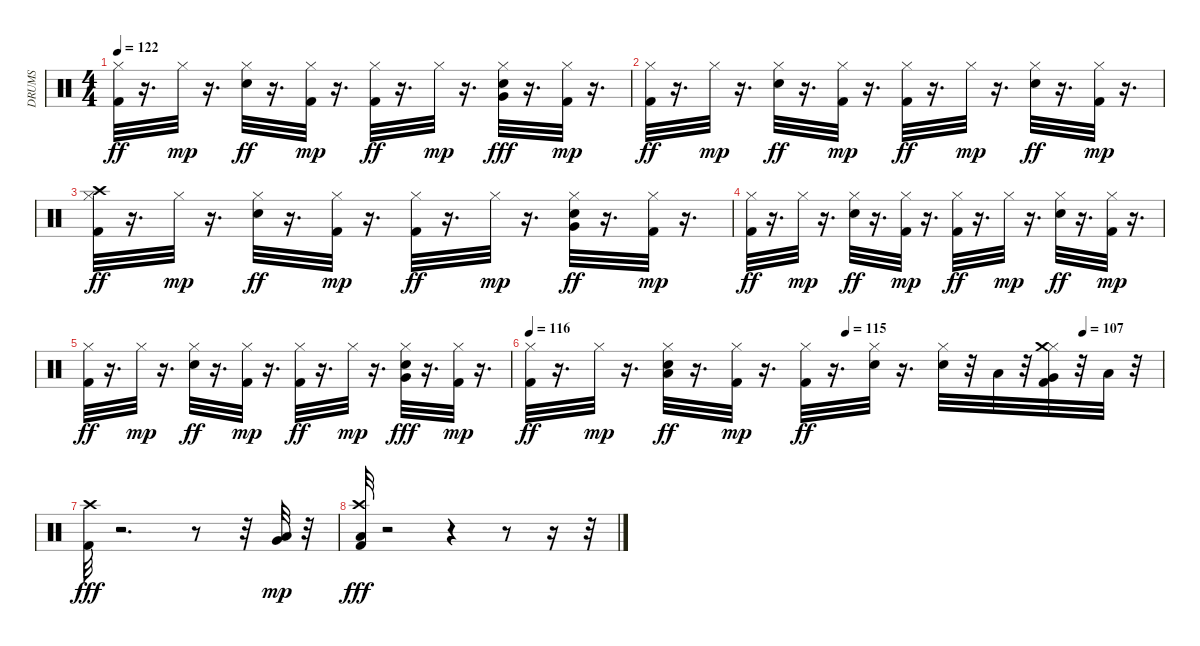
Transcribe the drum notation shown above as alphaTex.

\track ("DRUMS" "DRUMS") {instrument percussion}
\staff {score}
\articulation defaults
\ts (4 4)
\tempo 122
\clef neutral
\ks c
("Hi-Hat (closed)" "Kick (hit) 2").32{dy ff} r.16{d} "Hi-Hat (closed)".32{dy mp} r.16{d} ("Snare (hit) 2" "Hi-Hat (closed)").32{dy ff} r.16{d} ("Hi-Hat (closed)" "Kick (hit) 2").32{dy mp} r.16{d} ("Hi-Hat (closed)" "Kick (hit) 2").32{dy ff} r.16{d} "Hi-Hat (closed)".32{dy mp} r.16{d} ("Snare (hit) 2" "Hi-Hat (closed)" "Very Low Tom (hit)").32{dy fff} r.16{d} ("Hi-Hat (closed)" "Kick (hit) 2").32{dy mp} r.16{d} |
("Hi-Hat (closed)" "Kick (hit) 2").32{dy ff} r.16{d} "Hi-Hat (closed)".32{dy mp} r.16{d} ("Hi-Hat (closed)" "Snare (hit) 2").32{dy ff} r.16{d} ("Hi-Hat (closed)" "Kick (hit) 2").32{dy mp} r.16{d} ("Kick (hit) 2" "Hi-Hat (closed)").32{dy ff} r.16{d} "Hi-Hat (closed)".32{dy mp} r.16{d} ("Hi-Hat (closed)" "Snare (hit) 2").32{dy ff} r.16{d} ("Hi-Hat (closed)" "Kick (hit) 2").32{dy mp} r.16{d} |
("Kick (hit) 2" "Hi-Hat (closed)" "Crash high (hit)").32{dy ff} r.16{d} "Hi-Hat (closed)".32{dy mp} r.16{d} ("Hi-Hat (closed)" "Snare (hit) 2").32{dy ff} r.16{d} ("Kick (hit) 2" "Hi-Hat (closed)").32{dy mp} r.16{d} ("Kick (hit) 2" "Hi-Hat (closed)").32{dy ff} r.16{d} "Hi-Hat (closed)".32{dy mp} r.16{d} ("Hi-Hat (closed)" "Very Low Tom (hit)" "Snare (hit) 2").32{dy ff} r.16{d} ("Kick (hit) 2" "Hi-Hat (closed)").32{dy mp} r.16{d} |
("Kick (hit) 2" "Hi-Hat (closed)").32{dy ff} r.16{d} "Hi-Hat (closed)".32{dy mp} r.16{d} ("Snare (hit) 2" "Hi-Hat (closed)").32{dy ff} r.16{d} ("Kick (hit) 2" "Hi-Hat (closed)").32{dy mp} r.16{d} ("Hi-Hat (closed)" "Kick (hit) 2").32{dy ff} r.16{d} "Hi-Hat (closed)".32{dy mp} r.16{d} ("Snare (hit) 2" "Hi-Hat (closed)").32{dy ff} r.16{d} ("Kick (hit) 2" "Hi-Hat (closed)").32{dy mp} r.16{d} |
("Kick (hit) 2" "Hi-Hat (closed)").32{dy ff} r.16{d} "Hi-Hat (closed)".32{dy mp} r.16{d} ("Hi-Hat (closed)" "Snare (hit) 2").32{dy ff} r.16{d} ("Hi-Hat (closed)" "Kick (hit) 2").32{dy mp} r.16{d} ("Hi-Hat (closed)" "Kick (hit) 2").32{dy ff} r.16{d} "Hi-Hat (closed)".32{dy mp} r.16{d} ("Snare (hit) 2" "Very Low Tom (hit)" "Hi-Hat (closed)").32{dy fff} r.16{d} ("Kick (hit) 2" "Hi-Hat (closed)").32{dy mp} r.16{d} |
\tempo 116
\tempo (115 0.5)
\tempo (107 0.875)
("Hi-Hat (closed)" "Kick (hit) 2").32{dy ff} r.16{d} "Hi-Hat (closed)".32{dy mp} r.16{d} ("Low Tom (hit)" "Snare (hit) 2" "Hi-Hat (closed)").32{dy ff} r.16{d} ("Kick (hit) 2" "Hi-Hat (closed)").32{dy mp} r.16{d} ("Kick (hit) 2" "Hi-Hat (closed)").32{dy ff} r.16{d} ("Hi-Hat (closed)" "Snare (hit) 2").32 r.16{d} ("Snare (hit) 2" "Hi-Hat (closed)").32 r.32 "Low Tom (hit)".32 r.32 ("Kick (hit) 2" "Hi-Hat (closed)" "Crash medium (hit)" "Very Low Tom (hit)").32 r.32 "Low Floor Tom (hit)".32 r.32 |
("Crash high (hit)" "Kick (hit) 2").32{dy fff} r.2{d} r.8 r.32 ("Low Tom (hit)" "Very Low Tom (hit)").32{dy mp} r.32 |
("Low Floor Tom (hit)" "Crash high (hit)" "Kick (hit) 2").32{dy fff} r.2 r.4 r.8 r.16 r.32
